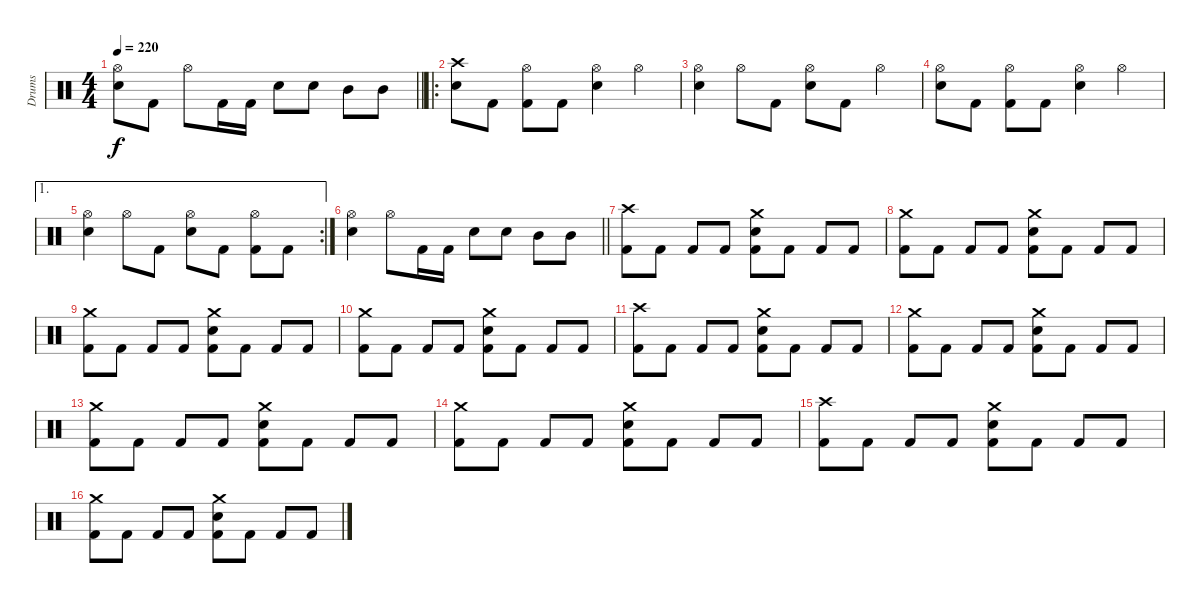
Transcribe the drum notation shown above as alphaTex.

\track ("Drums" "Drums") {instrument percussion}
\staff {score}
\articulation defaults
\ts (4 4)
\tempo 220
\clef neutral
\barLineRight lightlight
\ks c
("Hi-Hat (open)" "Snare (hit) 2").8{dy f} "Kick (hit) 2".8 "Hi-Hat (open)".8 "Kick (hit) 2".16 "Kick (hit) 2".16 "Snare (hit) 2".8 "Snare (hit) 2".8 "Mid Tom (hit)".8 "Mid Tom (hit)".8 |
\ro
("Crash high (hit)" "Snare (hit) 2").8 "Kick (hit) 2".8 ("Hi-Hat (open)" "Kick (hit) 2").8 "Kick (hit) 2".8 ("Hi-Hat (open)" "Snare (hit) 2").4 "Hi-Hat (open)".4 |
("Hi-Hat (open)" "Snare (hit) 2").4 "Hi-Hat (open)".8 "Kick (hit) 2".8 ("Hi-Hat (open)" "Snare (hit) 2").8 "Kick (hit) 2".8 "Hi-Hat (open)".4 |
("Hi-Hat (open)" "Snare (hit) 2").8 "Kick (hit) 2".8 ("Hi-Hat (open)" "Kick (hit) 2").8 "Kick (hit) 2".8 ("Hi-Hat (open)" "Snare (hit) 2").4 "Hi-Hat (open)".4 |
\ae 1
\rc 2
("Hi-Hat (open)" "Snare (hit) 2").4 "Hi-Hat (open)".8 "Kick (hit) 2".8 ("Hi-Hat (open)" "Snare (hit) 2").8 "Kick (hit) 2".8 ("Hi-Hat (open)" "Kick (hit) 2").8 "Kick (hit) 2".8 |
\barLineRight lightlight
("Hi-Hat (open)" "Snare (hit) 2").4 "Hi-Hat (open)".8 "Kick (hit) 2".16 "Kick (hit) 2".16 "Snare (hit) 2".8 "Snare (hit) 2".8 "Mid Tom (hit)".8 "Mid Tom (hit)".8 |
("Crash high (hit)" "Kick (hit) 2").8 "Kick (hit) 2".8 "Kick (hit) 2".8 "Kick (hit) 2".8 ("Crash medium (hit)" "Snare (hit) 2" "Kick (hit) 2").8 "Kick (hit) 2".8 "Kick (hit) 2".8 "Kick (hit) 2".8 |
("Crash medium (hit)" "Kick (hit) 2").8 "Kick (hit) 2".8 "Kick (hit) 2".8 "Kick (hit) 2".8 ("Crash medium (hit)" "Snare (hit) 2" "Kick (hit) 2").8 "Kick (hit) 2".8 "Kick (hit) 2".8 "Kick (hit) 2".8 |
("Crash medium (hit)" "Kick (hit) 2").8 "Kick (hit) 2".8 "Kick (hit) 2".8 "Kick (hit) 2".8 ("Crash medium (hit)" "Snare (hit) 2" "Kick (hit) 2").8 "Kick (hit) 2".8 "Kick (hit) 2".8 "Kick (hit) 2".8 |
("Crash medium (hit)" "Kick (hit) 2").8 "Kick (hit) 2".8 "Kick (hit) 2".8 "Kick (hit) 2".8 ("Crash medium (hit)" "Snare (hit) 2" "Kick (hit) 2").8 "Kick (hit) 2".8 "Kick (hit) 2".8 "Kick (hit) 2".8 |
("Crash high (hit)" "Kick (hit) 2").8 "Kick (hit) 2".8 "Kick (hit) 2".8 "Kick (hit) 2".8 ("Crash medium (hit)" "Snare (hit) 2" "Kick (hit) 2").8 "Kick (hit) 2".8 "Kick (hit) 2".8 "Kick (hit) 2".8 |
("Crash medium (hit)" "Kick (hit) 2").8 "Kick (hit) 2".8 "Kick (hit) 2".8 "Kick (hit) 2".8 ("Crash medium (hit)" "Snare (hit) 2" "Kick (hit) 2").8 "Kick (hit) 2".8 "Kick (hit) 2".8 "Kick (hit) 2".8 |
("Crash medium (hit)" "Kick (hit) 2").8 "Kick (hit) 2".8 "Kick (hit) 2".8 "Kick (hit) 2".8 ("Crash medium (hit)" "Snare (hit) 2" "Kick (hit) 2").8 "Kick (hit) 2".8 "Kick (hit) 2".8 "Kick (hit) 2".8 |
("Crash medium (hit)" "Kick (hit) 2").8 "Kick (hit) 2".8 "Kick (hit) 2".8 "Kick (hit) 2".8 ("Crash medium (hit)" "Snare (hit) 2" "Kick (hit) 2").8 "Kick (hit) 2".8 "Kick (hit) 2".8 "Kick (hit) 2".8 |
("Crash high (hit)" "Kick (hit) 2").8 "Kick (hit) 2".8 "Kick (hit) 2".8 "Kick (hit) 2".8 ("Crash medium (hit)" "Snare (hit) 2" "Kick (hit) 2").8 "Kick (hit) 2".8 "Kick (hit) 2".8 "Kick (hit) 2".8 |
("Crash medium (hit)" "Kick (hit) 2").8 "Kick (hit) 2".8 "Kick (hit) 2".8 "Kick (hit) 2".8 ("Crash medium (hit)" "Snare (hit) 2" "Kick (hit) 2").8 "Kick (hit) 2".8 "Kick (hit) 2".8 "Kick (hit) 2".8
